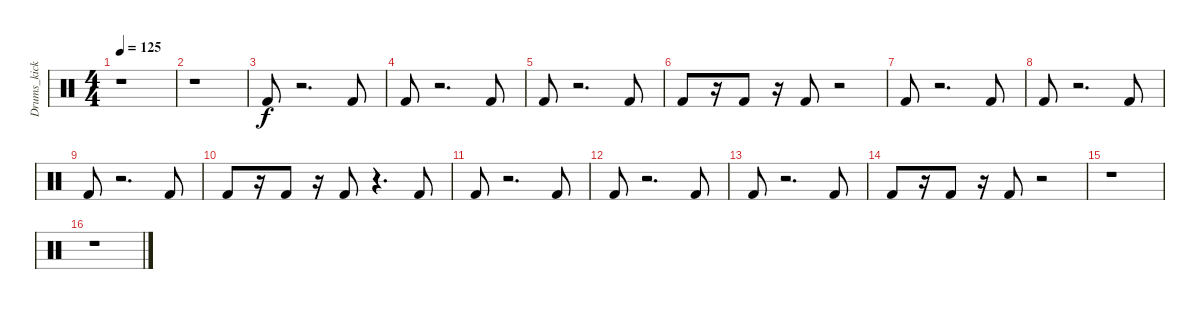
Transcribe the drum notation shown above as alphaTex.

\track ("Drums_kick" "Drums_kick") {instrument percussion}
\staff {score}
\articulation defaults
\ts (4 4)
\tempo 125
\clef neutral
\ks c
r.1{dy f} |
r.1 |
"Kick (hit) 2".8 r.2{d} "Kick (hit) 2".8 |
"Kick (hit) 2".8 r.2{d} "Kick (hit) 2".8 |
"Kick (hit) 2".8 r.2{d} "Kick (hit) 2".8 |
"Kick (hit) 2".8 r.16 "Kick (hit) 2".8 r.16 "Kick (hit) 2".8 r.2 |
"Kick (hit) 2".8 r.2{d} "Kick (hit) 2".8 |
"Kick (hit) 2".8 r.2{d} "Kick (hit) 2".8 |
"Kick (hit) 2".8 r.2{d} "Kick (hit) 2".8 |
"Kick (hit) 2".8 r.16 "Kick (hit) 2".8 r.16 "Kick (hit) 2".8 r.4{d} "Kick (hit) 2".8 |
"Kick (hit) 2".8 r.2{d} "Kick (hit) 2".8 |
"Kick (hit) 2".8 r.2{d} "Kick (hit) 2".8 |
"Kick (hit) 2".8 r.2{d} "Kick (hit) 2".8 |
"Kick (hit) 2".8 r.16 "Kick (hit) 2".8 r.16 "Kick (hit) 2".8 r.2 |
r.1 |
r.1
